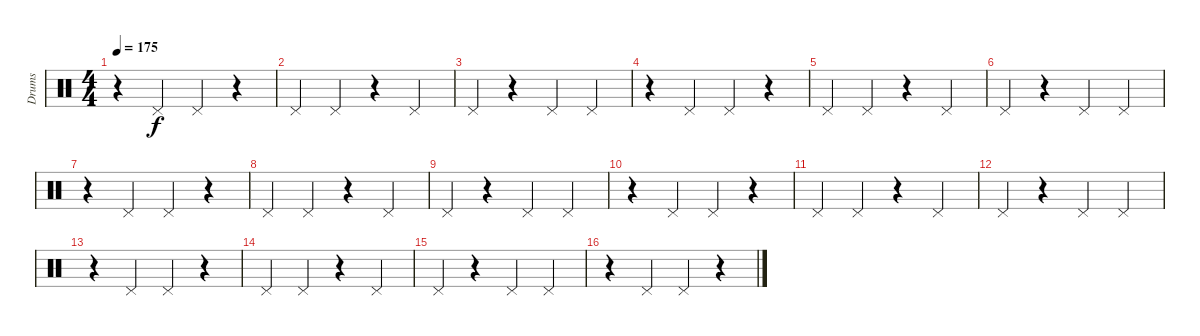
\track ("Drums" "Drums") {instrument percussion}
\staff {score}
\articulation defaults
\ts (4 4)
\tempo 175
\clef neutral
\ks c
r.4{dy f} "Pedal Hi-Hat (hit)".4 "Pedal Hi-Hat (hit)".4 r.4 |
"Pedal Hi-Hat (hit)".4 "Pedal Hi-Hat (hit)".4 r.4 "Pedal Hi-Hat (hit)".4 |
"Pedal Hi-Hat (hit)".4 r.4 "Pedal Hi-Hat (hit)".4 "Pedal Hi-Hat (hit)".4 |
r.4 "Pedal Hi-Hat (hit)".4 "Pedal Hi-Hat (hit)".4 r.4 |
"Pedal Hi-Hat (hit)".4 "Pedal Hi-Hat (hit)".4 r.4 "Pedal Hi-Hat (hit)".4 |
"Pedal Hi-Hat (hit)".4 r.4 "Pedal Hi-Hat (hit)".4 "Pedal Hi-Hat (hit)".4 |
r.4 "Pedal Hi-Hat (hit)".4 "Pedal Hi-Hat (hit)".4 r.4 |
"Pedal Hi-Hat (hit)".4 "Pedal Hi-Hat (hit)".4 r.4 "Pedal Hi-Hat (hit)".4 |
"Pedal Hi-Hat (hit)".4 r.4 "Pedal Hi-Hat (hit)".4 "Pedal Hi-Hat (hit)".4 |
r.4 "Pedal Hi-Hat (hit)".4 "Pedal Hi-Hat (hit)".4 r.4 |
"Pedal Hi-Hat (hit)".4 "Pedal Hi-Hat (hit)".4 r.4 "Pedal Hi-Hat (hit)".4 |
"Pedal Hi-Hat (hit)".4 r.4 "Pedal Hi-Hat (hit)".4 "Pedal Hi-Hat (hit)".4 |
r.4 "Pedal Hi-Hat (hit)".4 "Pedal Hi-Hat (hit)".4 r.4 |
"Pedal Hi-Hat (hit)".4 "Pedal Hi-Hat (hit)".4 r.4 "Pedal Hi-Hat (hit)".4 |
"Pedal Hi-Hat (hit)".4 r.4 "Pedal Hi-Hat (hit)".4 "Pedal Hi-Hat (hit)".4 |
r.4 "Pedal Hi-Hat (hit)".4 "Pedal Hi-Hat (hit)".4 r.4
